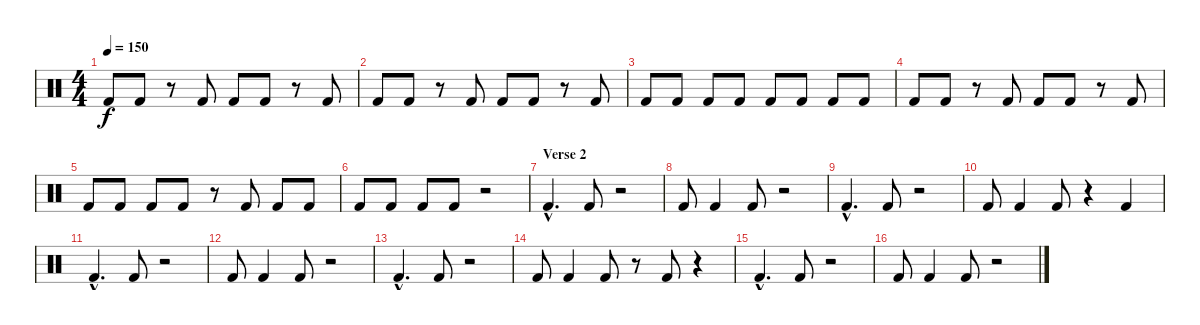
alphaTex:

\track "" {instrument percussion}
\staff {score}
\articulation defaults
\ts (4 4)
\tempo 150
\clef neutral
\ks c "Kick (hit) 2".8{dy f} "Kick (hit) 2".8
r.8 "Kick (hit) 2".8 "Kick (hit) 2".8 "Kick (hit) 2".8 r.8 "Kick (hit) 2".8 |
"Kick (hit) 2".8 "Kick (hit) 2".8 r.8 "Kick (hit) 2".8 "Kick (hit) 2".8 "Kick (hit) 2".8 r.8 "Kick (hit) 2".8 |
"Kick (hit) 2".8 "Kick (hit) 2".8 "Kick (hit) 2".8 "Kick (hit) 2".8 "Kick (hit) 2".8 "Kick (hit) 2".8 "Kick (hit) 2".8 "Kick (hit) 2".8 |
"Kick (hit) 2".8 "Kick (hit) 2".8 r.8 "Kick (hit) 2".8 "Kick (hit) 2".8 "Kick (hit) 2".8 r.8 "Kick (hit) 2".8 |
"Kick (hit) 2".8 "Kick (hit) 2".8 "Kick (hit) 2".8 "Kick (hit) 2".8 r.8 "Kick (hit) 2".8 "Kick (hit) 2".8 "Kick (hit) 2".8 |
"Kick (hit) 2".8 "Kick (hit) 2".8 "Kick (hit) 2".8 "Kick (hit) 2".8 r.2 |
\section ("" "Verse 2")
"Kick (hit) 2"{hac}.4{d} "Kick (hit) 2".8 r.2 |
"Kick (hit) 2".8 "Kick (hit) 2".4 "Kick (hit) 2".8 r.2 |
"Kick (hit) 2"{hac}.4{d} "Kick (hit) 2".8 r.2 |
"Kick (hit) 2".8 "Kick (hit) 2".4 "Kick (hit) 2".8 r.4 "Kick (hit) 2".4 |
"Kick (hit) 2"{hac}.4{d} "Kick (hit) 2".8 r.2 |
"Kick (hit) 2".8 "Kick (hit) 2".4 "Kick (hit) 2".8 r.2 |
"Kick (hit) 2"{hac}.4{d} "Kick (hit) 2".8 r.2 |
"Kick (hit) 2".8 "Kick (hit) 2".4 "Kick (hit) 2".8 r.8 "Kick (hit) 2".8 r.4 |
"Kick (hit) 2"{hac}.4{d} "Kick (hit) 2".8 r.2 |
"Kick (hit) 2".8 "Kick (hit) 2".4 "Kick (hit) 2".8 r.2
